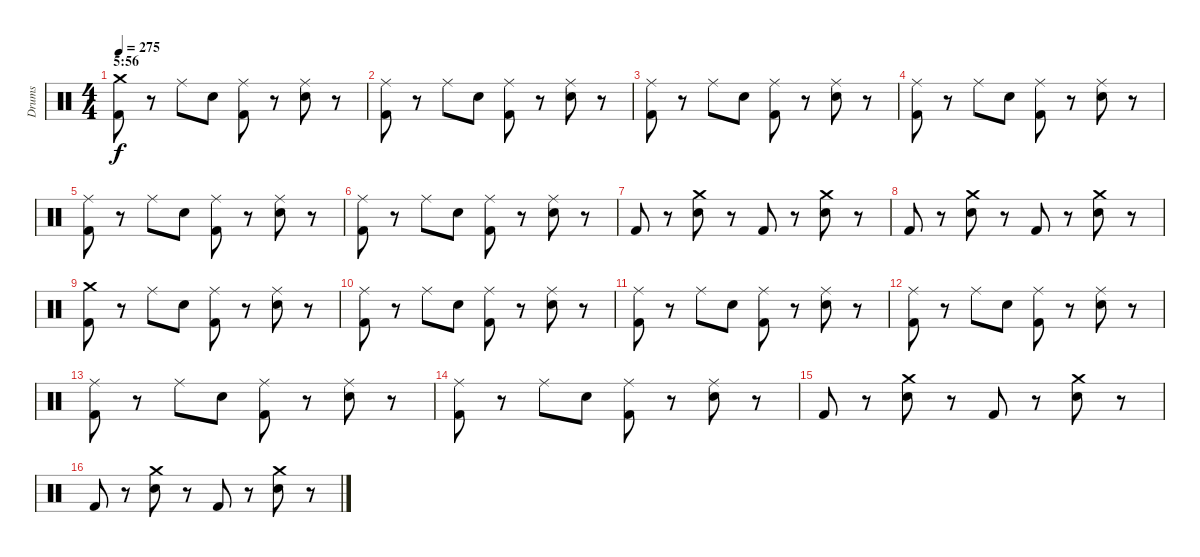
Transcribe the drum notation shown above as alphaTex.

\track ("Drums" "Drums") {instrument percussion}
\staff {score}
\articulation defaults
\ts (4 4)
\section ("" "5:56")
\tempo 275
\clef neutral
\ks c
("Crash medium (hit)" "Kick (hit) 2").8{dy f} r.8 "Ride (middle)".8 "Electric Snare (hit)".8 ("Ride (middle)" "Kick (hit) 2").8 r.8 ("Ride (middle)" "Electric Snare (hit)").8 r.8 |
("Ride (middle)" "Kick (hit) 2").8 r.8 "Ride (middle)".8 "Electric Snare (hit)".8 ("Ride (middle)" "Kick (hit) 2").8 r.8 ("Ride (middle)" "Electric Snare (hit)").8 r.8 |
("Ride (middle)" "Kick (hit) 2").8 r.8 "Ride (middle)".8 "Electric Snare (hit)".8 ("Ride (middle)" "Kick (hit) 2").8 r.8 ("Ride (middle)" "Electric Snare (hit)").8 r.8 |
("Ride (middle)" "Kick (hit) 2").8 r.8 "Ride (middle)".8 "Electric Snare (hit)".8 ("Ride (middle)" "Kick (hit) 2").8 r.8 ("Ride (middle)" "Electric Snare (hit)").8 r.8 |
("Ride (middle)" "Kick (hit) 2").8 r.8 "Ride (middle)".8 "Electric Snare (hit)".8 ("Ride (middle)" "Kick (hit) 2").8 r.8 ("Ride (middle)" "Electric Snare (hit)").8 r.8 |
("Ride (middle)" "Kick (hit) 2").8 r.8 "Ride (middle)".8 "Electric Snare (hit)".8 ("Ride (middle)" "Kick (hit) 2").8 r.8 ("Ride (middle)" "Electric Snare (hit)").8 r.8 |
"Kick (hit) 2".8 r.8 ("Crash medium (hit)" "Electric Snare (hit)").8 r.8 "Kick (hit) 2".8 r.8 ("Crash medium (hit)" "Electric Snare (hit)").8 r.8 |
"Kick (hit) 2".8 r.8 ("Crash medium (hit)" "Electric Snare (hit)").8 r.8 "Kick (hit) 2".8 r.8 ("Crash medium (hit)" "Electric Snare (hit)").8 r.8 |
("Crash medium (hit)" "Kick (hit) 2").8 r.8 "Ride (middle)".8 "Electric Snare (hit)".8 ("Ride (middle)" "Kick (hit) 2").8 r.8 ("Ride (middle)" "Electric Snare (hit)").8 r.8 |
("Ride (middle)" "Kick (hit) 2").8 r.8 "Ride (middle)".8 "Electric Snare (hit)".8 ("Ride (middle)" "Kick (hit) 2").8 r.8 ("Ride (middle)" "Electric Snare (hit)").8 r.8 |
("Ride (middle)" "Kick (hit) 2").8 r.8 "Ride (middle)".8 "Electric Snare (hit)".8 ("Ride (middle)" "Kick (hit) 2").8 r.8 ("Ride (middle)" "Electric Snare (hit)").8 r.8 |
("Ride (middle)" "Kick (hit) 2").8 r.8 "Ride (middle)".8 "Electric Snare (hit)".8 ("Ride (middle)" "Kick (hit) 2").8 r.8 ("Ride (middle)" "Electric Snare (hit)").8 r.8 |
("Ride (middle)" "Kick (hit) 2").8 r.8 "Ride (middle)".8 "Electric Snare (hit)".8 ("Ride (middle)" "Kick (hit) 2").8 r.8 ("Ride (middle)" "Electric Snare (hit)").8 r.8 |
("Ride (middle)" "Kick (hit) 2").8 r.8 "Ride (middle)".8 "Electric Snare (hit)".8 ("Ride (middle)" "Kick (hit) 2").8 r.8 ("Ride (middle)" "Electric Snare (hit)").8 r.8 |
"Kick (hit) 2".8 r.8 ("Crash medium (hit)" "Electric Snare (hit)").8 r.8 "Kick (hit) 2".8 r.8 ("Crash medium (hit)" "Electric Snare (hit)").8 r.8 |
"Kick (hit) 2".8 r.8 ("Crash medium (hit)" "Electric Snare (hit)").8 r.8 "Kick (hit) 2".8 r.8 ("Crash medium (hit)" "Electric Snare (hit)").8 r.8
